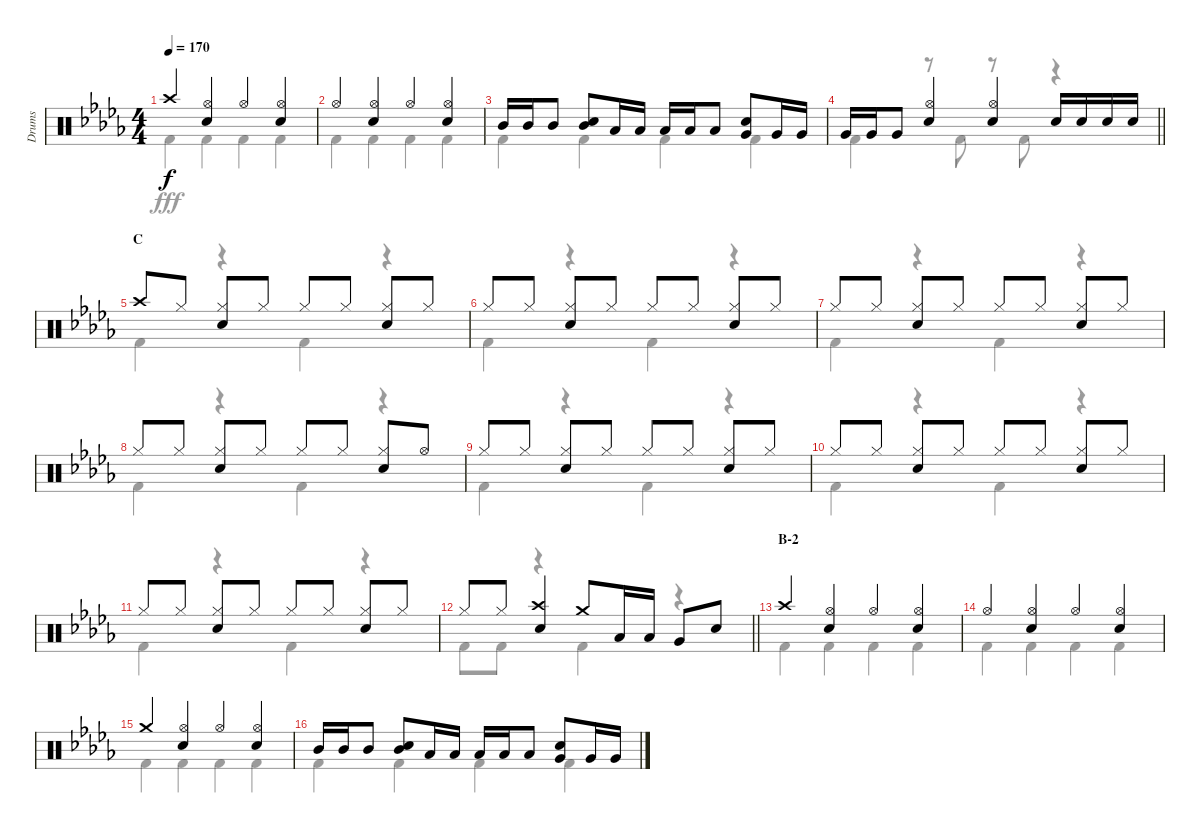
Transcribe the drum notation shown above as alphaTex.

\track ("Drums" "Drums") {instrument percussion}
\staff {score}
\articulation defaults
\voice
\ts (4 4)
\tempo 170
\clef neutral
\ks db "Crash high (hit)".4{dy f}
("Hi-Hat (open)" "Snare (hit) 2").4 "Hi-Hat (open)".4 ("Hi-Hat (open)" "Snare (hit) 2").4 |
"Hi-Hat (open)".4 ("Hi-Hat (open)" "Snare (hit) 2").4 "Hi-Hat (open)".4 ("Hi-Hat (open)" "Snare (hit) 2").4 |
"Mid Tom (hit)".16 "Mid Tom (hit)".16 "Mid Tom (hit)".8 ("Mid Tom (hit)" "Snare (hit) 2").8 "Low Tom (hit)".16 "Low Tom (hit)".16 "Low Tom (hit)".16 "Low Tom (hit)".16 "Low Tom (hit)".8 ("Snare (hit) 2" "Very Low Tom (hit)").8 "Very Low Tom (hit)".16 "Very Low Tom (hit)".16 |
\barLineRight lightlight "Very Low Tom (hit)".16 "Very Low Tom (hit)".16 "Very Low Tom (hit)".8
("Hi-Hat (open)" "Snare (hit) 2").4 ("Hi-Hat (open)" "Snare (hit) 2").4 "Snare (hit) 2".16 "Snare (hit) 2".16 "Snare (hit) 2".16 "Snare (hit) 2".16 |
\section ("" "C")
"Crash high (hit)".8 "Hi-Hat (closed)".8 ("Hi-Hat (closed)" "Snare (hit) 2").8 "Hi-Hat (closed)".8 "Hi-Hat (closed)".8 "Hi-Hat (closed)".8 ("Hi-Hat (closed)" "Snare (hit) 2").8 "Hi-Hat (closed)".8 |
"Hi-Hat (closed)".8 "Hi-Hat (closed)".8 ("Hi-Hat (closed)" "Snare (hit) 2").8 "Hi-Hat (closed)".8 "Hi-Hat (closed)".8 "Hi-Hat (closed)".8 ("Hi-Hat (closed)" "Snare (hit) 2").8 "Hi-Hat (closed)".8 |
"Hi-Hat (closed)".8 "Hi-Hat (closed)".8 ("Hi-Hat (closed)" "Snare (hit) 2").8 "Hi-Hat (closed)".8 "Hi-Hat (closed)".8 "Hi-Hat (closed)".8 ("Hi-Hat (closed)" "Snare (hit) 2").8 "Hi-Hat (closed)".8 |
"Hi-Hat (closed)".8 "Hi-Hat (closed)".8 ("Hi-Hat (closed)" "Snare (hit) 2").8 "Hi-Hat (closed)".8 "Hi-Hat (closed)".8 "Hi-Hat (closed)".8 ("Hi-Hat (closed)" "Snare (hit) 2").8 "Hi-Hat (open)".8 |
"Hi-Hat (closed)".8 "Hi-Hat (closed)".8 ("Hi-Hat (closed)" "Snare (hit) 2").8 "Hi-Hat (closed)".8 "Hi-Hat (closed)".8 "Hi-Hat (closed)".8 ("Hi-Hat (closed)" "Snare (hit) 2").8 "Hi-Hat (closed)".8 |
"Hi-Hat (closed)".8 "Hi-Hat (closed)".8 ("Hi-Hat (closed)" "Snare (hit) 2").8 "Hi-Hat (closed)".8 "Hi-Hat (closed)".8 "Hi-Hat (closed)".8 ("Hi-Hat (closed)" "Snare (hit) 2").8 "Hi-Hat (closed)".8 |
"Hi-Hat (closed)".8 "Hi-Hat (closed)".8 ("Hi-Hat (closed)" "Snare (hit) 2").8 "Hi-Hat (closed)".8 "Hi-Hat (closed)".8 "Hi-Hat (closed)".8 ("Hi-Hat (closed)" "Snare (hit) 2").8 "Hi-Hat (closed)".8 |
\barLineRight lightlight "Hi-Hat (closed)".8 "Hi-Hat (closed)".8
("Crash high (hit)" "Snare (hit) 2").4 "Crash medium (hit)".8 "Low Tom (hit)".16 "Low Tom (hit)".16 "Very Low Tom (hit)".8 "Snare (hit) 2".8 |
\section ("" "B-2")
"Crash high (hit)".4 ("Hi-Hat (open)" "Snare (hit) 2").4 "Hi-Hat (open)".4 ("Hi-Hat (open)" "Snare (hit) 2").4 |
"Hi-Hat (open)".4 ("Hi-Hat (open)" "Snare (hit) 2").4 "Hi-Hat (open)".4 ("Hi-Hat (open)" "Snare (hit) 2").4 |
"Crash medium (hit)".4 ("Hi-Hat (open)" "Snare (hit) 2").4 "Hi-Hat (open)".4 ("Hi-Hat (open)" "Snare (hit) 2").4 |
"Mid Tom (hit)".16 "Mid Tom (hit)".16 "Mid Tom (hit)".8 ("Mid Tom (hit)" "Snare (hit) 2").8 "Low Tom (hit)".16 "Low Tom (hit)".16 "Low Tom (hit)".16 "Low Tom (hit)".16 "Low Tom (hit)".8 ("Snare (hit) 2" "Very Low Tom (hit)").8 "Very Low Tom (hit)".16 "Very Low Tom (hit)".16
\voice
\clef neutral
\ottava regular
\simile none
\ks db "Kick (hit) 2".4{dy fff} "Kick (hit) 2".4 "Kick (hit) 2".4 "Kick (hit) 2".4
|
"Kick (hit) 2".4 "Kick (hit) 2".4 "Kick (hit) 2".4 "Kick (hit) 2".4 |
"Kick (hit) 2".4 "Kick (hit) 2".4 "Kick (hit) 2".4 "Kick (hit) 2".4 |
\barLineRight lightlight "Kick (hit) 2".4
r.8 "Kick (hit) 2".8 r.8 "Kick (hit) 2".8 r.4 |
"Kick (hit) 2".4 r.4 "Kick (hit) 2".4 r.4 |
"Kick (hit) 2".4 r.4 "Kick (hit) 2".4 r.4 |
"Kick (hit) 2".4 r.4 "Kick (hit) 2".4 r.4 |
"Kick (hit) 2".4 r.4 "Kick (hit) 2".4 r.4 |
"Kick (hit) 2".4 r.4 "Kick (hit) 2".4 r.4 |
"Kick (hit) 2".4 r.4 "Kick (hit) 2".4 r.4 |
"Kick (hit) 2".4 r.4 "Kick (hit) 2".4 r.4 |
\barLineRight lightlight "Kick (hit) 2".8 "Kick (hit) 2".8
r.4 "Kick (hit) 2".4 r.4 |
"Kick (hit) 2".4 "Kick (hit) 2".4 "Kick (hit) 2".4 "Kick (hit) 2".4 |
"Kick (hit) 2".4 "Kick (hit) 2".4 "Kick (hit) 2".4 "Kick (hit) 2".4 |
"Kick (hit) 2".4 "Kick (hit) 2".4 "Kick (hit) 2".4 "Kick (hit) 2".4 |
"Kick (hit) 2".4 "Kick (hit) 2".4 "Kick (hit) 2".4 "Kick (hit) 2".4
